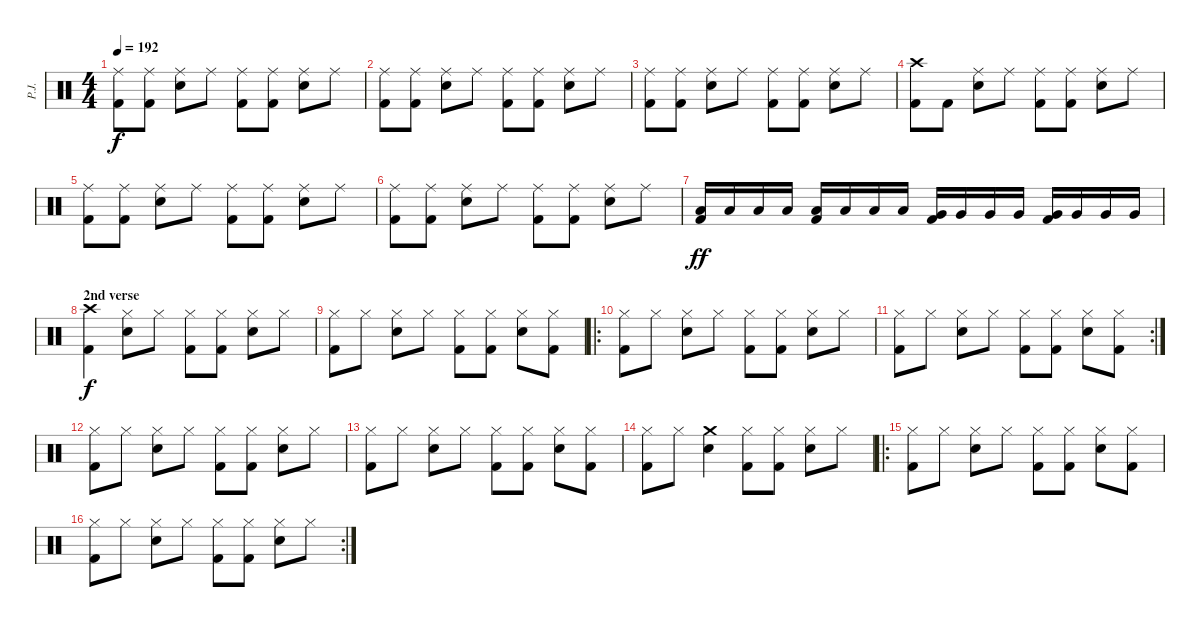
\track ("P.J." "P.J.") {instrument percussion}
\staff {score}
\articulation defaults
\ts (4 4)
\tempo 192
\clef neutral
\ks c
("Ride (middle)" "Kick (hit) 2").8{dy f} ("Ride (middle)" "Kick (hit) 2").8 ("Ride (middle)" "Snare (hit) 2").8 "Ride (middle)".8 ("Ride (middle)" "Kick (hit) 2").8 ("Ride (middle)" "Kick (hit) 2").8 ("Ride (middle)" "Snare (hit) 2").8 "Ride (middle)".8 |
("Ride (middle)" "Kick (hit) 2").8 ("Ride (middle)" "Kick (hit) 2").8 ("Ride (middle)" "Snare (hit) 2").8 "Ride (middle)".8 ("Ride (middle)" "Kick (hit) 2").8 ("Ride (middle)" "Kick (hit) 2").8 ("Ride (middle)" "Snare (hit) 2").8 "Ride (middle)".8 |
("Ride (middle)" "Kick (hit) 2").8 ("Ride (middle)" "Kick (hit) 2").8 ("Ride (middle)" "Snare (hit) 2").8 "Ride (middle)".8 ("Ride (middle)" "Kick (hit) 2").8 ("Ride (middle)" "Kick (hit) 2").8 ("Ride (middle)" "Snare (hit) 2").8 "Ride (middle)".8 |
("Crash high (hit)" "Kick (hit) 2").8 "Kick (hit) 2".8 ("Ride (middle)" "Snare (hit) 2").8 "Ride (middle)".8 ("Ride (middle)" "Kick (hit) 2").8 ("Ride (middle)" "Kick (hit) 2").8 ("Ride (middle)" "Snare (hit) 2").8 "Ride (middle)".8 |
("Ride (middle)" "Kick (hit) 2").8 ("Ride (middle)" "Kick (hit) 2").8 ("Ride (middle)" "Snare (hit) 2").8 "Ride (middle)".8 ("Ride (middle)" "Kick (hit) 2").8 ("Ride (middle)" "Kick (hit) 2").8 ("Ride (middle)" "Snare (hit) 2").8 "Ride (middle)".8 |
("Ride (middle)" "Kick (hit) 2").8 ("Ride (middle)" "Kick (hit) 2").8 ("Ride (middle)" "Snare (hit) 2").8 "Ride (middle)".8 ("Ride (middle)" "Kick (hit) 2").8 ("Ride (middle)" "Kick (hit) 2").8 ("Ride (middle)" "Snare (hit) 2").8 "Ride (middle)".8 |
("Low Tom (hit)" "Kick (hit) 2").16{dy ff} "Low Tom (hit)".16 "Low Tom (hit)".16 "Low Tom (hit)".16 ("Low Tom (hit)" "Kick (hit) 2").16 "Low Tom (hit)".16 "Low Tom (hit)".16 "Low Tom (hit)".16 ("Very Low Tom (hit)" "Kick (hit) 2").16 "Very Low Tom (hit)".16 "Very Low Tom (hit)".16 "Very Low Tom (hit)".16 ("Very Low Tom (hit)" "Kick (hit) 2").16 "Very Low Tom (hit)".16 "Very Low Tom (hit)".16 "Very Low Tom (hit)".16 |
\section ("" "2nd verse")
("Crash high (hit)" "Kick (hit) 2").4{dy f} ("Hi-Hat (closed)" "Snare (hit) 2").8 "Hi-Hat (closed)".8 ("Hi-Hat (closed)" "Kick (hit) 2").8 ("Hi-Hat (closed)" "Kick (hit) 2").8 ("Hi-Hat (closed)" "Snare (hit) 2").8 "Hi-Hat (closed)".8 |
("Hi-Hat (closed)" "Kick (hit) 2").8 "Hi-Hat (closed)".8 ("Hi-Hat (closed)" "Snare (hit) 2").8 "Hi-Hat (closed)".8 ("Hi-Hat (closed)" "Kick (hit) 2").8 ("Hi-Hat (closed)" "Kick (hit) 2").8 ("Hi-Hat (closed)" "Snare (hit) 2").8 ("Hi-Hat (closed)" "Kick (hit) 2").8 |
\ro
("Hi-Hat (closed)" "Kick (hit) 2").8 "Hi-Hat (closed)".8 ("Hi-Hat (closed)" "Snare (hit) 2").8 "Hi-Hat (closed)".8 ("Hi-Hat (closed)" "Kick (hit) 2").8 ("Hi-Hat (closed)" "Kick (hit) 2").8 ("Hi-Hat (closed)" "Snare (hit) 2").8 "Hi-Hat (closed)".8 |
\rc 2
("Hi-Hat (closed)" "Kick (hit) 2").8 "Hi-Hat (closed)".8 ("Hi-Hat (closed)" "Snare (hit) 2").8 "Hi-Hat (closed)".8 ("Hi-Hat (closed)" "Kick (hit) 2").8 ("Hi-Hat (closed)" "Kick (hit) 2").8 ("Hi-Hat (closed)" "Snare (hit) 2").8 ("Hi-Hat (closed)" "Kick (hit) 2").8 |
("Hi-Hat (closed)" "Kick (hit) 2").8 "Hi-Hat (closed)".8 ("Hi-Hat (closed)" "Snare (hit) 2").8 "Hi-Hat (closed)".8 ("Hi-Hat (closed)" "Kick (hit) 2").8 ("Hi-Hat (closed)" "Kick (hit) 2").8 ("Hi-Hat (closed)" "Snare (hit) 2").8 "Hi-Hat (closed)".8 |
("Hi-Hat (closed)" "Kick (hit) 2").8 "Hi-Hat (closed)".8 ("Hi-Hat (closed)" "Snare (hit) 2").8 "Hi-Hat (closed)".8 ("Hi-Hat (closed)" "Kick (hit) 2").8 ("Hi-Hat (closed)" "Kick (hit) 2").8 ("Hi-Hat (closed)" "Snare (hit) 2").8 ("Hi-Hat (closed)" "Kick (hit) 2").8 |
("Hi-Hat (closed)" "Kick (hit) 2").8 "Hi-Hat (closed)".8 ("Crash medium (hit)" "Snare (hit) 2").4 ("Hi-Hat (closed)" "Kick (hit) 2").8 ("Hi-Hat (closed)" "Kick (hit) 2").8 ("Hi-Hat (closed)" "Snare (hit) 2").8 "Hi-Hat (closed)".8 |
\ro
("Hi-Hat (closed)" "Kick (hit) 2").8 "Hi-Hat (closed)".8 ("Hi-Hat (closed)" "Snare (hit) 2").8 "Hi-Hat (closed)".8 ("Hi-Hat (closed)" "Kick (hit) 2").8 ("Hi-Hat (closed)" "Kick (hit) 2").8 ("Hi-Hat (closed)" "Snare (hit) 2").8 ("Hi-Hat (closed)" "Kick (hit) 2").8 |
\rc 2
("Hi-Hat (closed)" "Kick (hit) 2").8 "Hi-Hat (closed)".8 ("Hi-Hat (closed)" "Snare (hit) 2").8 "Hi-Hat (closed)".8 ("Hi-Hat (closed)" "Kick (hit) 2").8 ("Hi-Hat (closed)" "Kick (hit) 2").8 ("Hi-Hat (closed)" "Snare (hit) 2").8 "Hi-Hat (closed)".8
